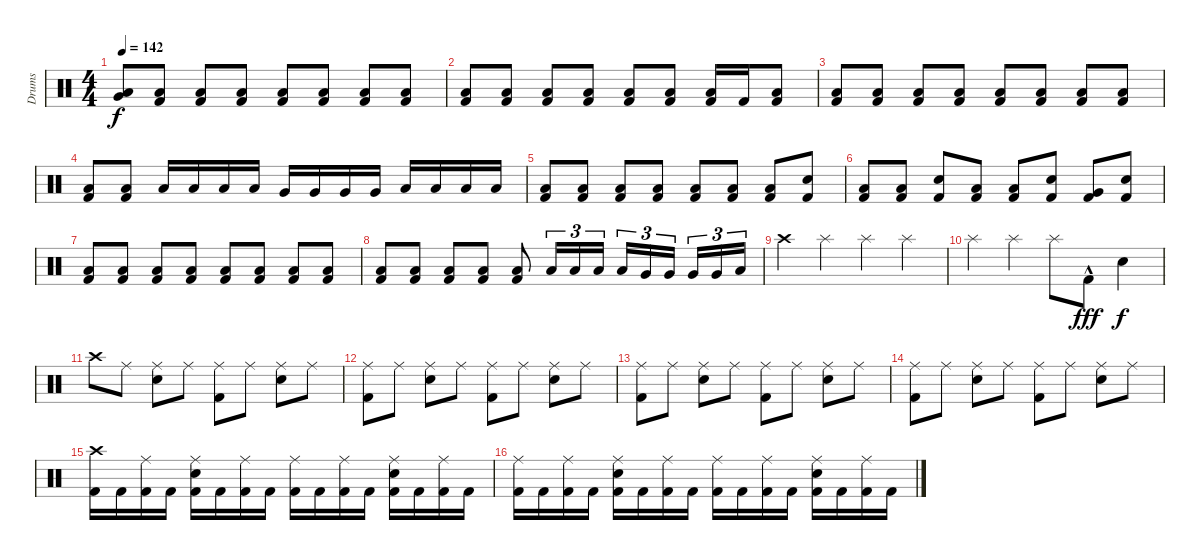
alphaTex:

\track ("Drums" "Drums") {instrument percussion}
\staff {score}
\articulation defaults
\ts (4 4)
\tempo 142
\clef neutral
\ks c
("Very Low Tom (hit)" "Low Floor Tom (hit)").8{dy f} ("Low Floor Tom (hit)" "Kick (hit) 2").8 ("Low Floor Tom (hit)" "Kick (hit) 2").8 ("Low Floor Tom (hit)" "Kick (hit) 2").8 ("Low Floor Tom (hit)" "Kick (hit) 2").8 ("Low Floor Tom (hit)" "Kick (hit) 2").8 ("Low Floor Tom (hit)" "Kick (hit) 2").8 ("Low Floor Tom (hit)" "Kick (hit) 2").8 |
("Low Floor Tom (hit)" "Kick (hit) 2").8 ("Low Floor Tom (hit)" "Kick (hit) 2").8 ("Low Floor Tom (hit)" "Kick (hit) 2").8 ("Low Floor Tom (hit)" "Kick (hit) 2").8 ("Low Floor Tom (hit)" "Kick (hit) 2").8 ("Low Floor Tom (hit)" "Kick (hit) 2").8 ("Low Floor Tom (hit)" "Kick (hit) 2").16 "Kick (hit) 2".16 ("Low Floor Tom (hit)" "Kick (hit) 2").8 |
("Low Floor Tom (hit)" "Kick (hit) 2").8 ("Low Floor Tom (hit)" "Kick (hit) 2").8 ("Low Floor Tom (hit)" "Kick (hit) 2").8 ("Low Floor Tom (hit)" "Kick (hit) 2").8 ("Low Floor Tom (hit)" "Kick (hit) 2").8 ("Low Floor Tom (hit)" "Kick (hit) 2").8 ("Low Floor Tom (hit)" "Kick (hit) 2").8 ("Low Floor Tom (hit)" "Kick (hit) 2").8 |
("Low Floor Tom (hit)" "Kick (hit) 2").8 ("Low Floor Tom (hit)" "Kick (hit) 2").8 "Low Tom (hit)".16 "Low Tom (hit)".16 "Low Tom (hit)".16 "Low Tom (hit)".16 "Very Low Tom (hit)".16 "Very Low Tom (hit)".16 "Very Low Tom (hit)".16 "Very Low Tom (hit)".16 "Low Floor Tom (hit)".16 "Low Floor Tom (hit)".16 "Low Floor Tom (hit)".16 "Low Floor Tom (hit)".16 |
("Low Floor Tom (hit)" "Kick (hit) 2").8 ("Low Floor Tom (hit)" "Kick (hit) 2").8 ("Low Floor Tom (hit)" "Kick (hit) 2").8 ("Low Floor Tom (hit)" "Kick (hit) 2").8 ("Low Floor Tom (hit)" "Kick (hit) 2").8 ("Low Floor Tom (hit)" "Kick (hit) 2").8 ("Low Floor Tom (hit)" "Kick (hit) 2").8 ("Electric Snare (hit)" "Kick (hit) 2").8 |
("Low Floor Tom (hit)" "Kick (hit) 2").8 ("Low Floor Tom (hit)" "Kick (hit) 2").8 ("Electric Snare (hit)" "Kick (hit) 2").8 ("Low Floor Tom (hit)" "Kick (hit) 2").8 ("Low Floor Tom (hit)" "Kick (hit) 2").8 ("Electric Snare (hit)" "Kick (hit) 2").8 ("Very Low Tom (hit)" "Kick (hit) 2").8 ("Electric Snare (hit)" "Kick (hit) 2").8 |
("Low Floor Tom (hit)" "Kick (hit) 2").8 ("Low Floor Tom (hit)" "Kick (hit) 2").8 ("Low Floor Tom (hit)" "Kick (hit) 2").8 ("Low Floor Tom (hit)" "Kick (hit) 2").8 ("Low Floor Tom (hit)" "Kick (hit) 2").8 ("Low Floor Tom (hit)" "Kick (hit) 2").8 ("Low Floor Tom (hit)" "Kick (hit) 2").8 ("Low Floor Tom (hit)" "Kick (hit) 2").8 |
("Low Floor Tom (hit)" "Kick (hit) 2").8 ("Low Floor Tom (hit)" "Kick (hit) 2").8 ("Low Floor Tom (hit)" "Kick (hit) 2").8 ("Low Floor Tom (hit)" "Kick (hit) 2").8 ("Low Floor Tom (hit)" "Kick (hit) 2").8 "Low Tom (hit)".16{tu (3 2)} "Low Tom (hit)".16{tu (3 2)} "Low Tom (hit)".16{tu (3 2)} "Low Tom (hit)".16{tu (3 2)} "Very Low Tom (hit)".16{tu (3 2)} "Very Low Tom (hit)".16{tu (3 2) beam splitsecondary} "Very Low Tom (hit)".16{tu (3 2)} "Very Low Tom (hit)".16{tu (3 2)} "Low Floor Tom (hit)".16{tu (3 2)} |
"Crash high (hit)".4 "Splash (hit)".4 "Splash (hit)".4 "Splash (hit)".4 |
"Splash (hit)".4 "Splash (hit)".4 "Splash (hit)".8 "Kick (hit) 2"{hac}.8{dy fff} "Electric Snare (hit)".4{dy f} |
"Crash high (hit)".8 "Ride (middle)".8 ("Ride (middle)" "Electric Snare (hit)").8 "Ride (middle)".8 ("Ride (middle)" "Kick (hit) 2").8 "Ride (middle)".8 ("Ride (middle)" "Electric Snare (hit)").8 "Ride (middle)".8 |
("Ride (middle)" "Kick (hit) 2").8 "Ride (middle)".8 ("Ride (middle)" "Electric Snare (hit)").8 "Ride (middle)".8 ("Ride (middle)" "Kick (hit) 2").8 "Ride (middle)".8 ("Ride (middle)" "Electric Snare (hit)").8 "Ride (middle)".8 |
("Ride (middle)" "Kick (hit) 2").8 "Ride (middle)".8 ("Ride (middle)" "Electric Snare (hit)").8 "Ride (middle)".8 ("Ride (middle)" "Kick (hit) 2").8 "Ride (middle)".8 ("Ride (middle)" "Electric Snare (hit)").8 "Ride (middle)".8 |
("Ride (middle)" "Kick (hit) 2").8 "Ride (middle)".8 ("Ride (middle)" "Electric Snare (hit)").8 "Ride (middle)".8 ("Ride (middle)" "Kick (hit) 2").8 "Ride (middle)".8 ("Ride (middle)" "Electric Snare (hit)").8 "Ride (middle)".8 |
("Crash high (hit)" "Kick (hit) 2").16 "Kick (hit) 2".16 ("Ride (middle)" "Kick (hit) 2").16 "Kick (hit) 2".16 ("Ride (middle)" "Electric Snare (hit)" "Kick (hit) 2").16 "Kick (hit) 2".16 ("Ride (middle)" "Kick (hit) 2").16 "Kick (hit) 2".16 ("Ride (middle)" "Kick (hit) 2").16 "Kick (hit) 2".16 ("Ride (middle)" "Kick (hit) 2").16 "Kick (hit) 2".16 ("Ride (middle)" "Electric Snare (hit)" "Kick (hit) 2").16 "Kick (hit) 2".16 ("Ride (middle)" "Kick (hit) 2").16 "Kick (hit) 2".16 |
("Ride (middle)" "Kick (hit) 2").16 "Kick (hit) 2".16 ("Ride (middle)" "Kick (hit) 2").16 "Kick (hit) 2".16 ("Ride (middle)" "Electric Snare (hit)" "Kick (hit) 2").16 "Kick (hit) 2".16 ("Ride (middle)" "Kick (hit) 2").16 "Kick (hit) 2".16 ("Ride (middle)" "Kick (hit) 2").16 "Kick (hit) 2".16 ("Ride (middle)" "Kick (hit) 2").16 "Kick (hit) 2".16 ("Ride (middle)" "Electric Snare (hit)" "Kick (hit) 2").16 "Kick (hit) 2".16 ("Ride (middle)" "Kick (hit) 2").16 "Kick (hit) 2".16
